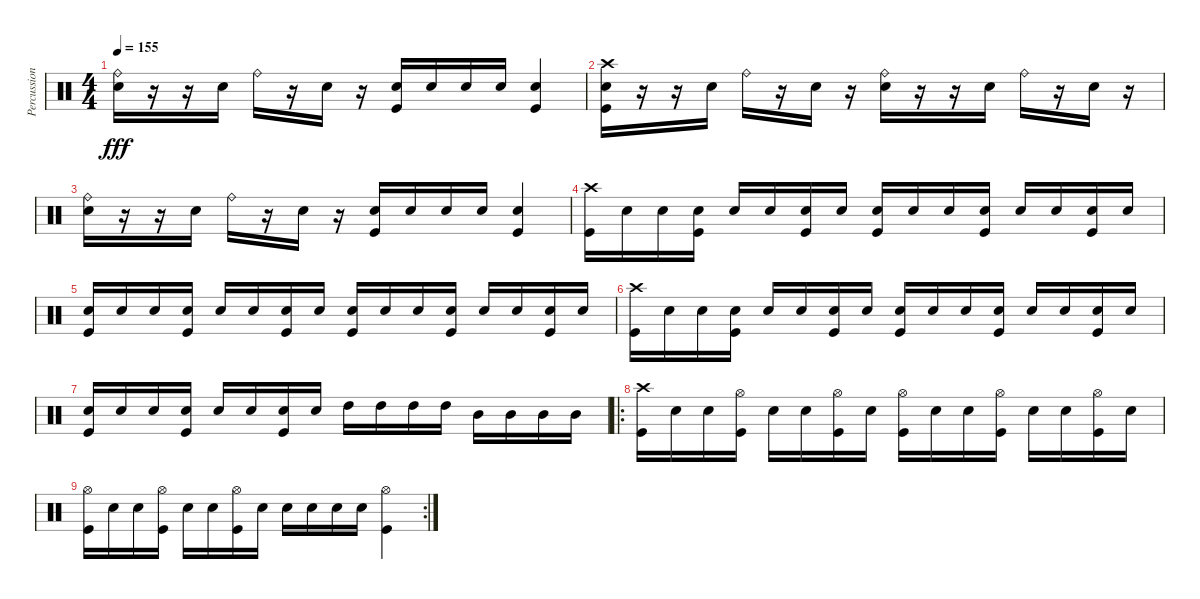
\track ("Percussion" "Percussion") {instrument percussion}
\staff {score}
\articulation defaults
\ts (4 4)
\tempo 155
\clef neutral
\ks c
("Ride (bell)" "Snare (hit) 2").16{dy fff} r.16 r.16 "Snare (hit) 2".16 "Ride (bell)".16 r.16 "Snare (hit) 2".16 r.16 ("Snare (hit) 2" "Kick (hit)").16 "Snare (hit) 2".16 "Snare (hit) 2".16 "Snare (hit) 2".16 ("Snare (hit) 2" "Kick (hit)").4 |
("Crash high (hit)" "Snare (hit) 2" "Kick (hit)").16 r.16 r.16 "Snare (hit) 2".16 "Ride (bell)".16 r.16 "Snare (hit) 2".16 r.16 ("Ride (bell)" "Snare (hit) 2").16 r.16 r.16 "Snare (hit) 2".16 "Ride (bell)".16 r.16 "Snare (hit) 2".16 r.16 |
("Ride (bell)" "Snare (hit) 2").16 r.16 r.16 "Snare (hit) 2".16 "Ride (bell)".16 r.16 "Snare (hit) 2".16 r.16 ("Snare (hit) 2" "Kick (hit)").16 "Snare (hit) 2".16 "Snare (hit) 2".16 "Snare (hit) 2".16 ("Snare (hit) 2" "Kick (hit)").4 |
("Crash high (hit)" "Kick (hit)").16 "Snare (hit) 2".16 "Snare (hit) 2".16 ("Snare (hit) 2" "Kick (hit)").16 "Snare (hit) 2".16 "Snare (hit) 2".16 ("Snare (hit) 2" "Kick (hit)").16 "Snare (hit) 2".16 ("Snare (hit) 2" "Kick (hit)").16 "Snare (hit) 2".16 "Snare (hit) 2".16 ("Snare (hit) 2" "Kick (hit)").16 "Snare (hit) 2".16 "Snare (hit) 2".16 ("Snare (hit) 2" "Kick (hit)").16 "Snare (hit) 2".16 |
("Snare (hit) 2" "Kick (hit)").16 "Snare (hit) 2".16 "Snare (hit) 2".16 ("Snare (hit) 2" "Kick (hit)").16 "Snare (hit) 2".16 "Snare (hit) 2".16 ("Snare (hit) 2" "Kick (hit)").16 "Snare (hit) 2".16 ("Snare (hit) 2" "Kick (hit)").16 "Snare (hit) 2".16 "Snare (hit) 2".16 ("Snare (hit) 2" "Kick (hit)").16 "Snare (hit) 2".16 "Snare (hit) 2".16 ("Snare (hit) 2" "Kick (hit)").16 "Snare (hit) 2".16 |
("Crash high (hit)" "Kick (hit)").16 "Snare (hit) 2".16 "Snare (hit) 2".16 ("Snare (hit) 2" "Kick (hit)").16 "Snare (hit) 2".16 "Snare (hit) 2".16 ("Snare (hit) 2" "Kick (hit)").16 "Snare (hit) 2".16 ("Snare (hit) 2" "Kick (hit)").16 "Snare (hit) 2".16 "Snare (hit) 2".16 ("Snare (hit) 2" "Kick (hit)").16 "Snare (hit) 2".16 "Snare (hit) 2".16 ("Snare (hit) 2" "Kick (hit)").16 "Snare (hit) 2".16 |
("Snare (hit) 2" "Kick (hit)").16 "Snare (hit) 2".16 "Snare (hit) 2".16 ("Snare (hit) 2" "Kick (hit)").16 "Snare (hit) 2".16 "Snare (hit) 2".16 ("Snare (hit) 2" "Kick (hit)").16 "Snare (hit) 2".16 "High Tom (hit)".16 "High Tom (hit)".16 "High Tom (hit)".16 "High Tom (hit)".16 "Mid Tom (hit)".16 "Mid Tom (hit)".16 "Mid Tom (hit)".16 "Mid Tom (hit)".16 |
\ro
("Crash high (hit)" "Kick (hit)").16 "Snare (hit) 2".16 "Snare (hit) 2".16 ("Hi-Hat (open)" "Kick (hit)").16 "Snare (hit) 2".16 "Snare (hit) 2".16 ("Hi-Hat (open)" "Kick (hit)").16 "Snare (hit) 2".16 ("Hi-Hat (open)" "Kick (hit)").16 "Snare (hit) 2".16 "Snare (hit) 2".16 ("Hi-Hat (open)" "Kick (hit)").16 "Snare (hit) 2".16 "Snare (hit) 2".16 ("Hi-Hat (open)" "Kick (hit)").16 "Snare (hit) 2".16 |
\rc 2
("Hi-Hat (open)" "Kick (hit)").16 "Snare (hit) 2".16 "Snare (hit) 2".16 ("Hi-Hat (open)" "Kick (hit)").16 "Snare (hit) 2".16 "Snare (hit) 2".16 ("Hi-Hat (open)" "Kick (hit)").16 "Snare (hit) 2".16 "Snare (hit) 2".16 "Snare (hit) 2".16 "Snare (hit) 2".16 "Snare (hit) 2".16 ("Hi-Hat (open)" "Kick (hit)").4
